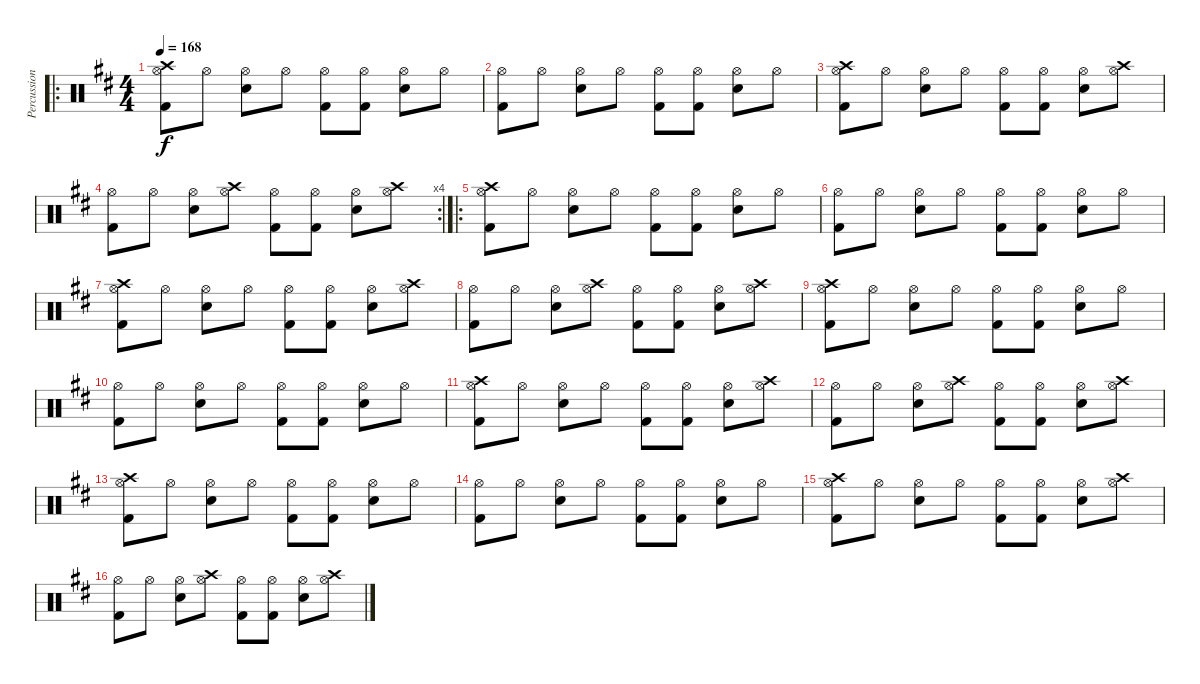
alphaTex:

\track ("Percussion" "Percussion") {instrument percussion}
\staff {score}
\articulation defaults
\ro
\ts (4 4)
\tempo 168
\clef neutral
\ks d
("Crash high (hit)" "Kick (hit) 2" "Hi-Hat (open)").8{dy f} "Hi-Hat (open)".8 ("Electric Snare (hit)" "Hi-Hat (open)").8 "Hi-Hat (open)".8 ("Kick (hit) 2" "Hi-Hat (open)").8 ("Kick (hit) 2" "Hi-Hat (open)").8 ("Electric Snare (hit)" "Hi-Hat (open)").8 "Hi-Hat (open)".8 |
("Kick (hit) 2" "Hi-Hat (open)").8 "Hi-Hat (open)".8 ("Electric Snare (hit)" "Hi-Hat (open)").8 "Hi-Hat (open)".8 ("Kick (hit) 2" "Hi-Hat (open)").8 ("Kick (hit) 2" "Hi-Hat (open)").8 ("Electric Snare (hit)" "Hi-Hat (open)").8 "Hi-Hat (open)".8 |
("Crash high (hit)" "Kick (hit) 2" "Hi-Hat (open)").8 "Hi-Hat (open)".8 ("Electric Snare (hit)" "Hi-Hat (open)").8 "Hi-Hat (open)".8 ("Kick (hit) 2" "Hi-Hat (open)").8 ("Kick (hit) 2" "Hi-Hat (open)").8 ("Electric Snare (hit)" "Hi-Hat (open)").8 ("Crash high (hit)" "Hi-Hat (open)").8 |
\rc 4
("Kick (hit) 2" "Hi-Hat (open)").8 "Hi-Hat (open)".8 ("Electric Snare (hit)" "Hi-Hat (open)").8 ("Crash high (hit)" "Hi-Hat (open)").8 ("Kick (hit) 2" "Hi-Hat (open)").8 ("Kick (hit) 2" "Hi-Hat (open)").8 ("Electric Snare (hit)" "Hi-Hat (open)").8 ("Crash high (hit)" "Hi-Hat (open)").8 |
\ro
("Crash high (hit)" "Kick (hit) 2" "Hi-Hat (open)").8 "Hi-Hat (open)".8 ("Electric Snare (hit)" "Hi-Hat (open)").8 "Hi-Hat (open)".8 ("Kick (hit) 2" "Hi-Hat (open)").8 ("Kick (hit) 2" "Hi-Hat (open)").8 ("Electric Snare (hit)" "Hi-Hat (open)").8 "Hi-Hat (open)".8 |
("Kick (hit) 2" "Hi-Hat (open)").8 "Hi-Hat (open)".8 ("Electric Snare (hit)" "Hi-Hat (open)").8 "Hi-Hat (open)".8 ("Kick (hit) 2" "Hi-Hat (open)").8 ("Kick (hit) 2" "Hi-Hat (open)").8 ("Electric Snare (hit)" "Hi-Hat (open)").8 "Hi-Hat (open)".8 |
("Crash high (hit)" "Kick (hit) 2" "Hi-Hat (open)").8 "Hi-Hat (open)".8 ("Electric Snare (hit)" "Hi-Hat (open)").8 "Hi-Hat (open)".8 ("Kick (hit) 2" "Hi-Hat (open)").8 ("Kick (hit) 2" "Hi-Hat (open)").8 ("Electric Snare (hit)" "Hi-Hat (open)").8 ("Crash high (hit)" "Hi-Hat (open)").8 |
("Kick (hit) 2" "Hi-Hat (open)").8 "Hi-Hat (open)".8 ("Electric Snare (hit)" "Hi-Hat (open)").8 ("Crash high (hit)" "Hi-Hat (open)").8 ("Kick (hit) 2" "Hi-Hat (open)").8 ("Kick (hit) 2" "Hi-Hat (open)").8 ("Electric Snare (hit)" "Hi-Hat (open)").8 ("Crash high (hit)" "Hi-Hat (open)").8 |
("Crash high (hit)" "Kick (hit) 2" "Hi-Hat (open)").8 "Hi-Hat (open)".8 ("Electric Snare (hit)" "Hi-Hat (open)").8 "Hi-Hat (open)".8 ("Kick (hit) 2" "Hi-Hat (open)").8 ("Kick (hit) 2" "Hi-Hat (open)").8 ("Electric Snare (hit)" "Hi-Hat (open)").8 "Hi-Hat (open)".8 |
("Kick (hit) 2" "Hi-Hat (open)").8 "Hi-Hat (open)".8 ("Electric Snare (hit)" "Hi-Hat (open)").8 "Hi-Hat (open)".8 ("Kick (hit) 2" "Hi-Hat (open)").8 ("Kick (hit) 2" "Hi-Hat (open)").8 ("Electric Snare (hit)" "Hi-Hat (open)").8 "Hi-Hat (open)".8 |
("Crash high (hit)" "Kick (hit) 2" "Hi-Hat (open)").8 "Hi-Hat (open)".8 ("Electric Snare (hit)" "Hi-Hat (open)").8 "Hi-Hat (open)".8 ("Kick (hit) 2" "Hi-Hat (open)").8 ("Kick (hit) 2" "Hi-Hat (open)").8 ("Electric Snare (hit)" "Hi-Hat (open)").8 ("Crash high (hit)" "Hi-Hat (open)").8 |
("Kick (hit) 2" "Hi-Hat (open)").8 "Hi-Hat (open)".8 ("Electric Snare (hit)" "Hi-Hat (open)").8 ("Crash high (hit)" "Hi-Hat (open)").8 ("Kick (hit) 2" "Hi-Hat (open)").8 ("Kick (hit) 2" "Hi-Hat (open)").8 ("Electric Snare (hit)" "Hi-Hat (open)").8 ("Crash high (hit)" "Hi-Hat (open)").8 |
("Crash high (hit)" "Kick (hit) 2" "Hi-Hat (open)").8 "Hi-Hat (open)".8 ("Electric Snare (hit)" "Hi-Hat (open)").8 "Hi-Hat (open)".8 ("Kick (hit) 2" "Hi-Hat (open)").8 ("Kick (hit) 2" "Hi-Hat (open)").8 ("Electric Snare (hit)" "Hi-Hat (open)").8 "Hi-Hat (open)".8 |
("Kick (hit) 2" "Hi-Hat (open)").8 "Hi-Hat (open)".8 ("Electric Snare (hit)" "Hi-Hat (open)").8 "Hi-Hat (open)".8 ("Kick (hit) 2" "Hi-Hat (open)").8 ("Kick (hit) 2" "Hi-Hat (open)").8 ("Electric Snare (hit)" "Hi-Hat (open)").8 "Hi-Hat (open)".8 |
("Crash high (hit)" "Kick (hit) 2" "Hi-Hat (open)").8 "Hi-Hat (open)".8 ("Electric Snare (hit)" "Hi-Hat (open)").8 "Hi-Hat (open)".8 ("Kick (hit) 2" "Hi-Hat (open)").8 ("Kick (hit) 2" "Hi-Hat (open)").8 ("Electric Snare (hit)" "Hi-Hat (open)").8 ("Crash high (hit)" "Hi-Hat (open)").8 |
("Kick (hit) 2" "Hi-Hat (open)").8 "Hi-Hat (open)".8 ("Electric Snare (hit)" "Hi-Hat (open)").8 ("Crash high (hit)" "Hi-Hat (open)").8 ("Kick (hit) 2" "Hi-Hat (open)").8 ("Kick (hit) 2" "Hi-Hat (open)").8 ("Electric Snare (hit)" "Hi-Hat (open)").8 ("Crash high (hit)" "Hi-Hat (open)").8
